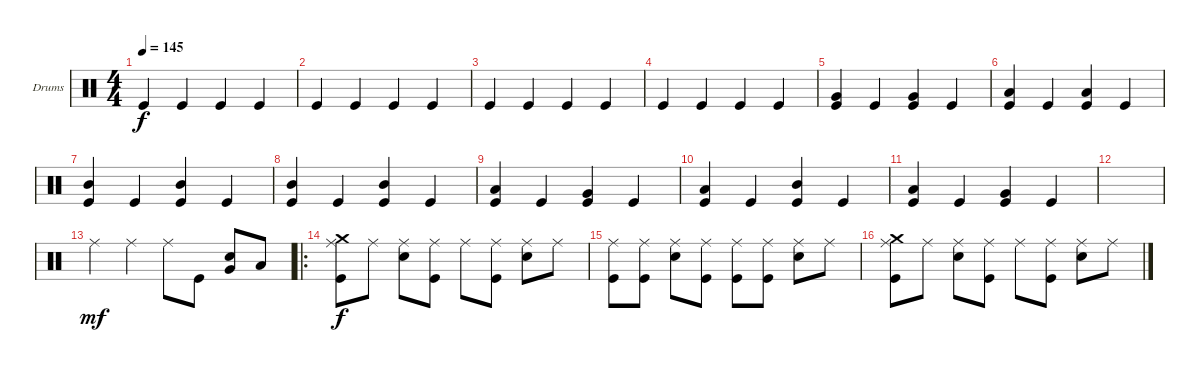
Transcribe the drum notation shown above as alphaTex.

\defaultSystemsLayout 4
\bracketExtendMode groupsimilarinstruments
\firstSystemTrackNameOrientation horizontal
\otherSystemsTrackNameOrientation horizontal
\track ("Drumkit" "Drums") {instrument percussion}
\staff {score}
\articulation defaults
\ts (4 4)
\tempo 145
\clef neutral
\ks c "Kick (hit)".4{dy f} "Kick (hit)".4 "Kick (hit)".4 "Kick (hit)".4
|
"Kick (hit)".4 "Kick (hit)".4 "Kick (hit)".4 "Kick (hit)".4 |
"Kick (hit)".4 "Kick (hit)".4 "Kick (hit)".4 "Kick (hit)".4 |
"Kick (hit)".4 "Kick (hit)".4 "Kick (hit)".4 "Kick (hit)".4 |
("Kick (hit)" "Very Low Tom (hit)").4 "Kick (hit)".4 ("Kick (hit)" "Very Low Tom (hit)").4 "Kick (hit)".4 |
("Kick (hit)" "Low Tom (hit)").4 "Kick (hit)".4 ("Kick (hit)" "Low Tom (hit)").4 "Kick (hit)".4 |
("Kick (hit)" "Mid Tom (hit)").4 "Kick (hit)".4 ("Kick (hit)" "Mid Tom (hit)").4 "Kick (hit)".4 |
("Kick (hit)" "Mid Tom (hit)").4 "Kick (hit)".4 ("Kick (hit)" "Mid Tom (hit)").4 "Kick (hit)".4 |
("Kick (hit)" "Low Tom (hit)").4 "Kick (hit)".4 ("Kick (hit)" "Very Low Tom (hit)").4 "Kick (hit)".4 |
("Kick (hit)" "Low Tom (hit)").4 "Kick (hit)".4 ("Kick (hit)" "Mid Tom (hit)").4 "Kick (hit)".4 |
("Kick (hit)" "Low Tom (hit)").4 "Kick (hit)".4 ("Kick (hit)" "Very Low Tom (hit)").4 "Kick (hit)".4 |
|
"Ride (middle)".4{dy mf} "Ride (middle)".4 "Ride (middle)".8 "Kick (hit)".8 ("Snare (hit) 2" "Very Low Tom (hit)").8 "Low Tom (hit)".8 |
\ro
("Kick (hit)" "Ride (middle)" "Crash medium (hit)").8{dy f} "Ride (middle)".8 ("Snare (hit) 2" "Ride (middle)").8 ("Kick (hit)" "Ride (middle)").8 "Ride (middle)".8 ("Kick (hit)" "Ride (middle)").8 ("Snare (hit) 2" "Ride (middle)").8 "Ride (middle)".8 |
("Kick (hit)" "Ride (middle)").8 ("Kick (hit)" "Ride (middle)").8 ("Snare (hit) 2" "Ride (middle)").8 ("Kick (hit)" "Ride (middle)").8 ("Kick (hit)" "Ride (middle)").8 ("Kick (hit)" "Ride (middle)").8 ("Snare (hit) 2" "Ride (middle)").8 "Ride (middle)".8 |
("Crash medium (hit)" "Kick (hit)" "Ride (middle)").8 "Ride (middle)".8 ("Snare (hit) 2" "Ride (middle)").8 ("Kick (hit)" "Ride (middle)").8 "Ride (middle)".8 ("Kick (hit)" "Ride (middle)").8 ("Snare (hit) 2" "Ride (middle)").8 "Ride (middle)".8
